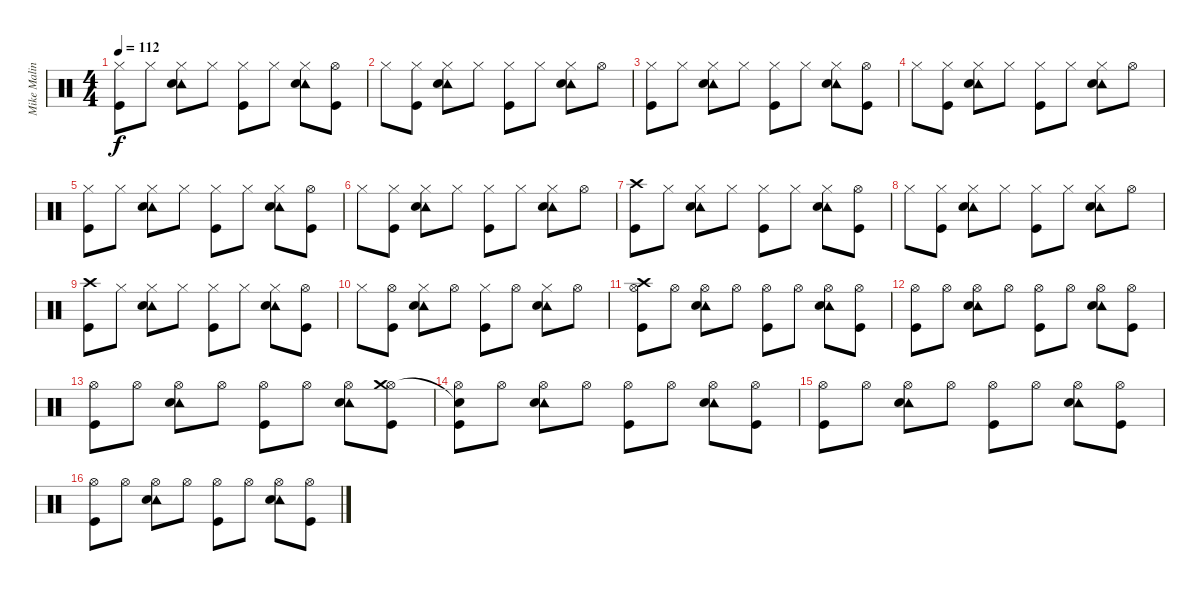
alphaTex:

\track ("Mike Malinin - Percussion" "Mike Malin") {instrument percussion}
\staff {score}
\articulation defaults
\ts (4 4)
\tempo 112
\clef neutral
\ks c
("Hi-Hat (closed)" "Kick (hit)").8{dy f} "Hi-Hat (closed)".8 ("Hi-Hat (closed)" "Tambourine (hit)" "Snare (hit) 2").8 "Hi-Hat (closed)".8 ("Hi-Hat (closed)" "Kick (hit)").8 "Hi-Hat (closed)".8 ("Hi-Hat (closed)" "Tambourine (hit)" "Snare (hit) 2").8 ("Hi-Hat (open)" "Kick (hit)").8 |
"Hi-Hat (closed)".8 ("Hi-Hat (closed)" "Kick (hit)").8 ("Hi-Hat (closed)" "Tambourine (hit)" "Snare (hit) 2").8 "Hi-Hat (closed)".8 ("Hi-Hat (closed)" "Kick (hit)").8 "Hi-Hat (closed)".8 ("Hi-Hat (closed)" "Tambourine (hit)" "Snare (hit) 2").8 "Hi-Hat (open)".8 |
("Hi-Hat (closed)" "Kick (hit)").8 "Hi-Hat (closed)".8 ("Hi-Hat (closed)" "Tambourine (hit)" "Snare (hit) 2").8 "Hi-Hat (closed)".8 ("Hi-Hat (closed)" "Kick (hit)").8 "Hi-Hat (closed)".8 ("Hi-Hat (closed)" "Tambourine (hit)" "Snare (hit) 2").8 ("Hi-Hat (open)" "Kick (hit)").8 |
"Hi-Hat (closed)".8 ("Hi-Hat (closed)" "Kick (hit)").8 ("Hi-Hat (closed)" "Tambourine (hit)" "Snare (hit) 2").8 "Hi-Hat (closed)".8 ("Hi-Hat (closed)" "Kick (hit)").8 "Hi-Hat (closed)".8 ("Hi-Hat (closed)" "Tambourine (hit)" "Snare (hit) 2").8 "Hi-Hat (open)".8 |
("Hi-Hat (closed)" "Kick (hit)").8 "Hi-Hat (closed)".8 ("Hi-Hat (closed)" "Tambourine (hit)" "Snare (hit) 2").8 "Hi-Hat (closed)".8 ("Hi-Hat (closed)" "Kick (hit)").8 "Hi-Hat (closed)".8 ("Hi-Hat (closed)" "Tambourine (hit)" "Snare (hit) 2").8 ("Hi-Hat (open)" "Kick (hit)").8 |
"Hi-Hat (closed)".8 ("Hi-Hat (closed)" "Kick (hit)").8 ("Hi-Hat (closed)" "Tambourine (hit)" "Snare (hit) 2").8 "Hi-Hat (closed)".8 ("Hi-Hat (closed)" "Kick (hit)").8 "Hi-Hat (closed)".8 ("Hi-Hat (closed)" "Tambourine (hit)" "Snare (hit) 2").8 "Hi-Hat (open)".8 |
("Crash high (hit)" "Kick (hit)").8 "Hi-Hat (closed)".8 ("Hi-Hat (closed)" "Tambourine (hit)" "Snare (hit) 2").8 "Hi-Hat (closed)".8 ("Hi-Hat (closed)" "Kick (hit)").8 "Hi-Hat (closed)".8 ("Hi-Hat (closed)" "Tambourine (hit)" "Snare (hit) 2").8 ("Hi-Hat (open)" "Kick (hit)").8 |
"Hi-Hat (closed)".8 ("Hi-Hat (closed)" "Kick (hit)").8 ("Hi-Hat (closed)" "Tambourine (hit)" "Snare (hit) 2").8 "Hi-Hat (closed)".8 ("Hi-Hat (closed)" "Kick (hit)").8 "Hi-Hat (closed)".8 ("Hi-Hat (closed)" "Tambourine (hit)" "Snare (hit) 2").8 "Hi-Hat (open)".8 |
("Crash high (hit)" "Kick (hit)").8 "Hi-Hat (closed)".8 ("Hi-Hat (closed)" "Tambourine (hit)" "Snare (hit) 2").8 "Hi-Hat (closed)".8 ("Hi-Hat (closed)" "Kick (hit)").8 "Hi-Hat (closed)".8 ("Hi-Hat (closed)" "Tambourine (hit)" "Snare (hit) 2").8 ("Hi-Hat (open)" "Kick (hit)").8 |
"Hi-Hat (closed)".8 ("Hi-Hat (open)" "Kick (hit)").8 ("Hi-Hat (closed)" "Tambourine (hit)" "Snare (hit) 2").8 "Hi-Hat (open)".8 ("Hi-Hat (closed)" "Kick (hit)").8 "Hi-Hat (open)".8 ("Hi-Hat (closed)" "Tambourine (hit)" "Snare (hit) 2").8 "Hi-Hat (open)".8 |
("Hi-Hat (open)" "Crash high (hit)" "Kick (hit)").8 "Hi-Hat (open)".8 ("Hi-Hat (open)" "Tambourine (hit)" "Snare (hit) 2").8 "Hi-Hat (open)".8 ("Hi-Hat (open)" "Kick (hit)").8 "Hi-Hat (open)".8 ("Hi-Hat (open)" "Tambourine (hit)" "Snare (hit) 2").8 ("Hi-Hat (open)" "Kick (hit)").8 |
("Hi-Hat (open)" "Kick (hit)").8 "Hi-Hat (open)".8 ("Hi-Hat (open)" "Tambourine (hit)" "Snare (hit) 2").8 "Hi-Hat (open)".8 ("Hi-Hat (open)" "Kick (hit)").8 "Hi-Hat (open)".8 ("Hi-Hat (open)" "Tambourine (hit)" "Snare (hit) 2").8 ("Hi-Hat (open)" "Kick (hit)").8 |
("Hi-Hat (open)" "Kick (hit)").8 "Hi-Hat (open)".8 ("Hi-Hat (open)" "Tambourine (hit)" "Snare (hit) 2").8 "Hi-Hat (open)".8 ("Hi-Hat (open)" "Kick (hit)").8 "Hi-Hat (open)".8 ("Hi-Hat (open)" "Tambourine (hit)" "Snare (hit) 2").8 ("Hi-Hat (open)" "Crash medium (hit)" "Kick (hit)").8 |
("Hi-Hat (open)" "Snare (hit)"{t} "Kick (hit)").8 "Hi-Hat (open)".8 ("Hi-Hat (open)" "Tambourine (hit)" "Snare (hit) 2").8 "Hi-Hat (open)".8 ("Hi-Hat (open)" "Kick (hit)").8 "Hi-Hat (open)".8 ("Hi-Hat (open)" "Tambourine (hit)" "Snare (hit) 2").8 ("Hi-Hat (open)" "Kick (hit)").8 |
("Hi-Hat (open)" "Kick (hit)").8 "Hi-Hat (open)".8 ("Hi-Hat (open)" "Tambourine (hit)" "Snare (hit) 2").8 "Hi-Hat (open)".8 ("Hi-Hat (open)" "Kick (hit)").8 "Hi-Hat (open)".8 ("Hi-Hat (open)" "Tambourine (hit)" "Snare (hit) 2").8 ("Hi-Hat (open)" "Kick (hit)").8 |
("Hi-Hat (open)" "Kick (hit)").8 "Hi-Hat (open)".8 ("Hi-Hat (open)" "Tambourine (hit)" "Snare (hit) 2").8 "Hi-Hat (open)".8 ("Hi-Hat (open)" "Kick (hit)").8 "Hi-Hat (open)".8 ("Hi-Hat (open)" "Tambourine (hit)" "Snare (hit) 2").8 ("Hi-Hat (open)" "Kick (hit)").8
